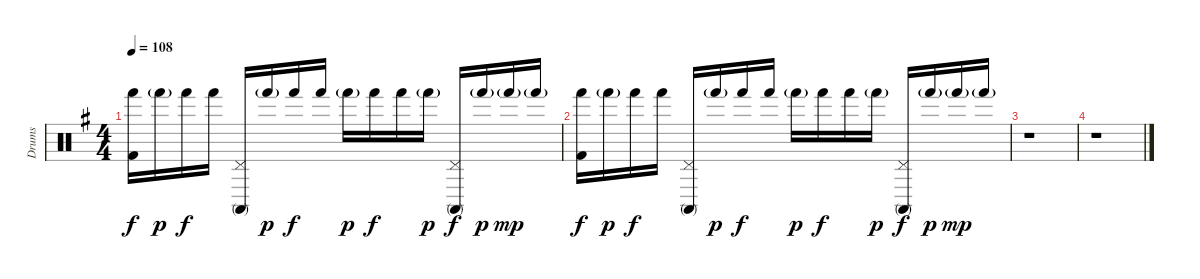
\track ("Drums" "Drums") {instrument percussion}
\staff {score}
\articulation defaults
\ts (4 4)
\tempo 108
\clef neutral
\ks eminor
("Hand (hit)" "Kick (hit) 2").16{dy f} "Hand (hit)"{g}.16{dy p} "Hand (hit)".16{dy f} "Hand (hit)".16 ("Pedal Hi-Hat (hit)" "Conga high (mute)").16 "Hand (hit)"{g}.16{dy p} "Hand (hit)".16{dy f} "Hand (hit)".16 "Hand (hit)"{g}.16{dy p} "Hand (hit)".16{dy f} "Hand (hit)".16 "Hand (hit)"{g}.16{dy p} ("Pedal Hi-Hat (hit)" "Conga high (mute)").16{dy f} "Hand (hit)"{g}.16{dy p} "Hand (hit)"{g}.16{dy mp} "Hand (hit)"{g}.16 |
("Hand (hit)" "Kick (hit) 2").16{dy f} "Hand (hit)"{g}.16{dy p} "Hand (hit)".16{dy f} "Hand (hit)".16 ("Pedal Hi-Hat (hit)" "Conga high (mute)").16 "Hand (hit)"{g}.16{dy p} "Hand (hit)".16{dy f} "Hand (hit)".16 "Hand (hit)"{g}.16{dy p} "Hand (hit)".16{dy f} "Hand (hit)".16 "Hand (hit)"{g}.16{dy p} ("Pedal Hi-Hat (hit)" "Conga high (mute)").16{dy f} "Hand (hit)"{g}.16{dy p} "Hand (hit)"{g}.16{dy mp} "Hand (hit)"{g}.16 |
r.1 |
r.1
